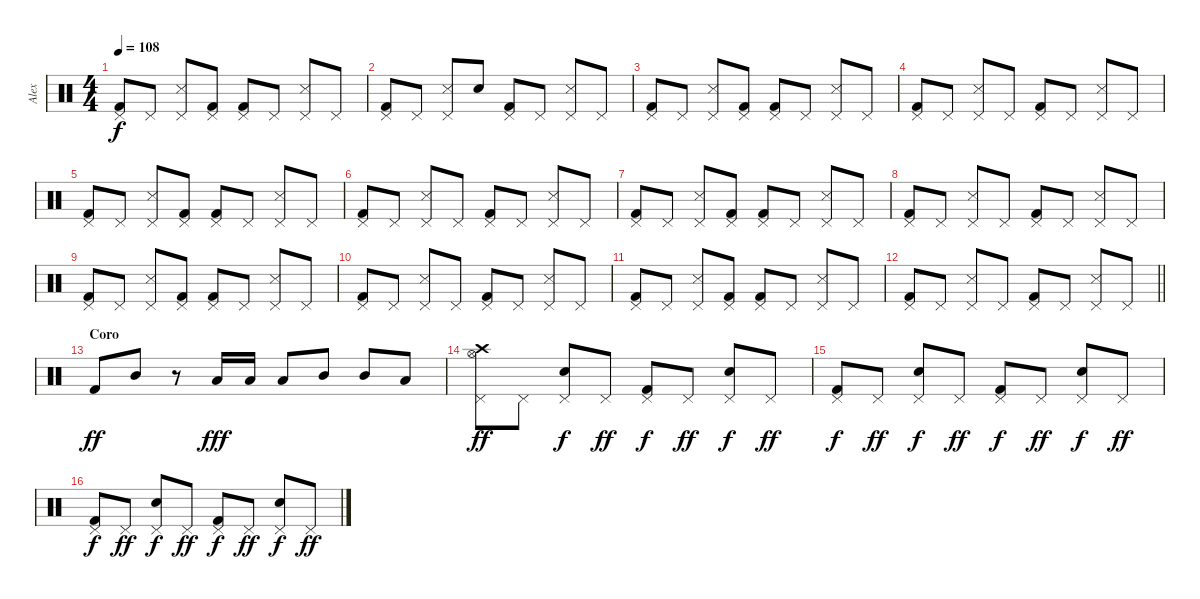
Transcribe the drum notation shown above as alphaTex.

\track ("Alex" "Alex") {instrument percussion}
\staff {score}
\articulation defaults
\ts (4 4)
\tempo 108
\clef neutral
\ks c
("Kick (hit) 2" "Pedal Hi-Hat (hit)").8{dy f} "Pedal Hi-Hat (hit)".8 ("Snare (side stick) 3" "Pedal Hi-Hat (hit)").8 ("Kick (hit) 2" "Pedal Hi-Hat (hit)").8 ("Kick (hit) 2" "Pedal Hi-Hat (hit)").8 "Pedal Hi-Hat (hit)".8 ("Snare (side stick) 3" "Pedal Hi-Hat (hit)").8 "Pedal Hi-Hat (hit)".8 |
("Kick (hit) 2" "Pedal Hi-Hat (hit)").8 "Pedal Hi-Hat (hit)".8 ("Snare (side stick) 3" "Pedal Hi-Hat (hit)").8 "Snare (hit)".8 ("Kick (hit) 2" "Pedal Hi-Hat (hit)").8 "Pedal Hi-Hat (hit)".8 ("Snare (side stick) 3" "Pedal Hi-Hat (hit)").8 "Pedal Hi-Hat (hit)".8 |
("Kick (hit) 2" "Pedal Hi-Hat (hit)").8 "Pedal Hi-Hat (hit)".8 ("Snare (side stick) 3" "Pedal Hi-Hat (hit)").8 ("Kick (hit) 2" "Pedal Hi-Hat (hit)").8 ("Kick (hit) 2" "Pedal Hi-Hat (hit)").8 "Pedal Hi-Hat (hit)".8 ("Snare (side stick) 3" "Pedal Hi-Hat (hit)").8 "Pedal Hi-Hat (hit)".8 |
("Kick (hit) 2" "Pedal Hi-Hat (hit)").8 "Pedal Hi-Hat (hit)".8 ("Snare (side stick) 3" "Pedal Hi-Hat (hit)").8 "Pedal Hi-Hat (hit)".8 ("Kick (hit) 2" "Pedal Hi-Hat (hit)").8 "Pedal Hi-Hat (hit)".8 ("Snare (side stick) 3" "Pedal Hi-Hat (hit)").8 "Pedal Hi-Hat (hit)".8 |
("Kick (hit) 2" "Pedal Hi-Hat (hit)").8 "Pedal Hi-Hat (hit)".8 ("Snare (side stick) 3" "Pedal Hi-Hat (hit)").8 ("Kick (hit) 2" "Pedal Hi-Hat (hit)").8 ("Kick (hit) 2" "Pedal Hi-Hat (hit)").8 "Pedal Hi-Hat (hit)".8 ("Snare (side stick) 3" "Pedal Hi-Hat (hit)").8 "Pedal Hi-Hat (hit)".8 |
("Kick (hit) 2" "Pedal Hi-Hat (hit)").8 "Pedal Hi-Hat (hit)".8 ("Snare (side stick) 3" "Pedal Hi-Hat (hit)").8 "Pedal Hi-Hat (hit)".8 ("Kick (hit) 2" "Pedal Hi-Hat (hit)").8 "Pedal Hi-Hat (hit)".8 ("Snare (side stick) 3" "Pedal Hi-Hat (hit)").8 "Pedal Hi-Hat (hit)".8 |
("Kick (hit) 2" "Pedal Hi-Hat (hit)").8 "Pedal Hi-Hat (hit)".8 ("Snare (side stick) 3" "Pedal Hi-Hat (hit)").8 ("Kick (hit) 2" "Pedal Hi-Hat (hit)").8 ("Kick (hit) 2" "Pedal Hi-Hat (hit)").8 "Pedal Hi-Hat (hit)".8 ("Snare (side stick) 3" "Pedal Hi-Hat (hit)").8 "Pedal Hi-Hat (hit)".8 |
("Kick (hit) 2" "Pedal Hi-Hat (hit)").8 "Pedal Hi-Hat (hit)".8 ("Snare (side stick) 3" "Pedal Hi-Hat (hit)").8 "Pedal Hi-Hat (hit)".8 ("Kick (hit) 2" "Pedal Hi-Hat (hit)").8 "Pedal Hi-Hat (hit)".8 ("Snare (side stick) 3" "Pedal Hi-Hat (hit)").8 "Pedal Hi-Hat (hit)".8 |
("Kick (hit) 2" "Pedal Hi-Hat (hit)").8 "Pedal Hi-Hat (hit)".8 ("Snare (side stick) 3" "Pedal Hi-Hat (hit)").8 ("Kick (hit) 2" "Pedal Hi-Hat (hit)").8 ("Kick (hit) 2" "Pedal Hi-Hat (hit)").8 "Pedal Hi-Hat (hit)".8 ("Snare (side stick) 3" "Pedal Hi-Hat (hit)").8 "Pedal Hi-Hat (hit)".8 |
("Kick (hit) 2" "Pedal Hi-Hat (hit)").8 "Pedal Hi-Hat (hit)".8 ("Snare (side stick) 3" "Pedal Hi-Hat (hit)").8 "Pedal Hi-Hat (hit)".8 ("Kick (hit) 2" "Pedal Hi-Hat (hit)").8 "Pedal Hi-Hat (hit)".8 ("Snare (side stick) 3" "Pedal Hi-Hat (hit)").8 "Pedal Hi-Hat (hit)".8 |
("Kick (hit) 2" "Pedal Hi-Hat (hit)").8 "Pedal Hi-Hat (hit)".8 ("Snare (side stick) 3" "Pedal Hi-Hat (hit)").8 ("Kick (hit) 2" "Pedal Hi-Hat (hit)").8 ("Kick (hit) 2" "Pedal Hi-Hat (hit)").8 "Pedal Hi-Hat (hit)".8 ("Snare (side stick) 3" "Pedal Hi-Hat (hit)").8 "Pedal Hi-Hat (hit)".8 |
\barLineRight lightlight
("Kick (hit) 2" "Pedal Hi-Hat (hit)").8 "Pedal Hi-Hat (hit)".8 ("Snare (side stick) 3" "Pedal Hi-Hat (hit)").8 "Pedal Hi-Hat (hit)".8 ("Kick (hit) 2" "Pedal Hi-Hat (hit)").8 "Pedal Hi-Hat (hit)".8 ("Snare (side stick) 3" "Pedal Hi-Hat (hit)").8 "Pedal Hi-Hat (hit)".8 |
\section ("" "Coro")
"Kick (hit) 2".8{dy ff} "Mid Tom (hit)".8 r.8 "Low Tom (hit)".16{dy fff} "Low Tom (hit)".16 "Low Tom (hit)".8 "Mid Tom (hit)".8 "Mid Tom (hit)".8 "Low Tom (hit)".8 |
("Hi-Hat (open)" "Crash high (hit)" "Pedal Hi-Hat (hit)").8{dy ff} "Pedal Hi-Hat (hit)".8 ("Electric Snare (hit)" "Pedal Hi-Hat (hit)").8{dy f} "Pedal Hi-Hat (hit)".8{dy ff} ("Kick (hit) 2" "Pedal Hi-Hat (hit)").8{dy f} "Pedal Hi-Hat (hit)".8{dy ff} ("Electric Snare (hit)" "Pedal Hi-Hat (hit)").8{dy f} "Pedal Hi-Hat (hit)".8{dy ff} |
("Kick (hit) 2" "Pedal Hi-Hat (hit)").8{dy f} "Pedal Hi-Hat (hit)".8{dy ff} ("Electric Snare (hit)" "Pedal Hi-Hat (hit)").8{dy f} "Pedal Hi-Hat (hit)".8{dy ff} ("Kick (hit) 2" "Pedal Hi-Hat (hit)").8{dy f} "Pedal Hi-Hat (hit)".8{dy ff} ("Electric Snare (hit)" "Pedal Hi-Hat (hit)").8{dy f} "Pedal Hi-Hat (hit)".8{dy ff} |
("Kick (hit) 2" "Pedal Hi-Hat (hit)").8{dy f} "Pedal Hi-Hat (hit)".8{dy ff} ("Electric Snare (hit)" "Pedal Hi-Hat (hit)").8{dy f} "Pedal Hi-Hat (hit)".8{dy ff} ("Kick (hit) 2" "Pedal Hi-Hat (hit)").8{dy f} "Pedal Hi-Hat (hit)".8{dy ff} ("Electric Snare (hit)" "Pedal Hi-Hat (hit)").8{dy f} "Pedal Hi-Hat (hit)".8{dy ff}
